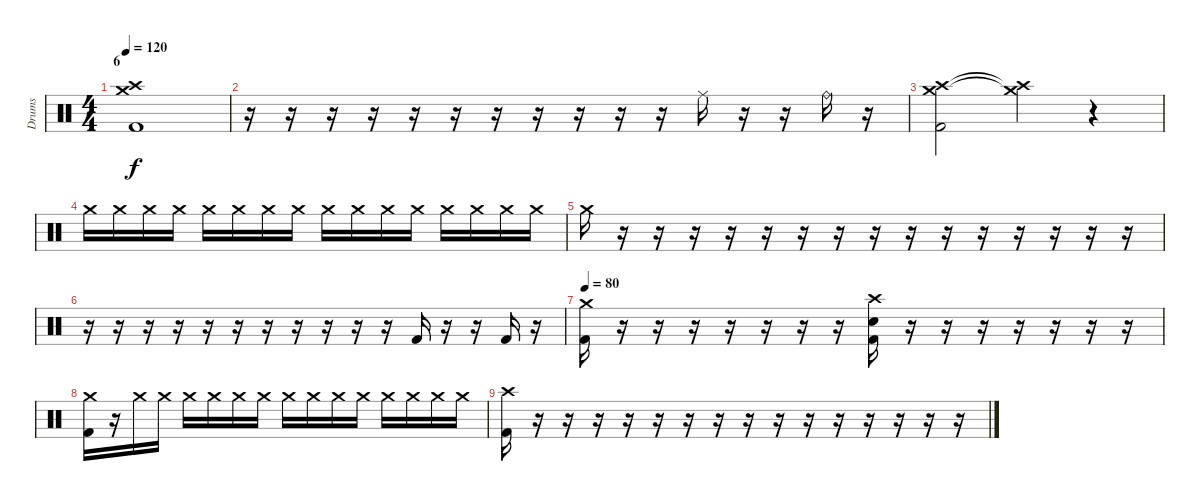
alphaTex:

\track ("Drums" "Drums") {instrument percussion}
\staff {score}
\articulation defaults
\ts (4 4)
\section ("" "6")
\tempo 120
\clef neutral
\ks aminor
("Crash high (hit)" "Crash medium (hit)" "Kick (hit) 2").1{dy f} |
r.16 r.16 r.16 r.16 r.16 r.16 r.16 r.16 r.16 r.16 r.16 "Ride (middle)".16 r.16 r.16 "Ride (bell)".16 r.16 |
("Crash high (hit)" "Crash medium (hit)" "Kick (hit) 2").2 ("Crash high (hit)"{t} "Crash medium (hit)"{t}).4 r.4{volume 0} |
"Crash medium (hit)".16{volume 13} "Crash medium (hit)".16 "Crash medium (hit)".16 "Crash medium (hit)".16 "Crash medium (hit)".16 "Crash medium (hit)".16 "Crash medium (hit)".16 "Crash medium (hit)".16 "Crash medium (hit)".16 "Crash medium (hit)".16 "Crash medium (hit)".16 "Crash medium (hit)".16 "Crash medium (hit)".16 "Crash medium (hit)".16 "Crash medium (hit)".16 "Crash medium (hit)".16 |
"Crash medium (hit)".16 r.16 r.16 r.16 r.16 r.16 r.16 r.16 r.16 r.16 r.16 r.16 r.16 r.16 r.16 r.16 |
r.16 r.16 r.16 r.16 r.16 r.16 r.16 r.16 r.16 r.16 r.16 "Kick (hit) 2".16 r.16 r.16 "Kick (hit) 2".16 r.16 |
\tempo 80
("Crash medium (hit)" "Kick (hit) 2").16 r.16 r.16 r.16 r.16 r.16 r.16 r.16 ("Crash high (hit)" "Electric Snare (hit)" "Kick (hit) 2").16 r.16 r.16 r.16 r.16 r.16 r.16 r.16 |
("Crash medium (hit)" "Kick (hit) 2").16 r.16 "Crash medium (hit)".16{volume 0} "Crash medium (hit)".16{volume 13} "Crash medium (hit)".16 "Crash medium (hit)".16 "Crash medium (hit)".16 "Crash medium (hit)".16 "Crash medium (hit)".16 "Crash medium (hit)".16 "Crash medium (hit)".16 "Crash medium (hit)".16 "Crash medium (hit)".16 "Crash medium (hit)".16 "Crash medium (hit)".16 "Crash medium (hit)".16 |
("Crash high (hit)" "Kick (hit) 2").16 r.16 r.16 r.16 r.16 r.16 r.16 r.16 r.16 r.16 r.16 r.16 r.16 r.16 r.16 r.16
